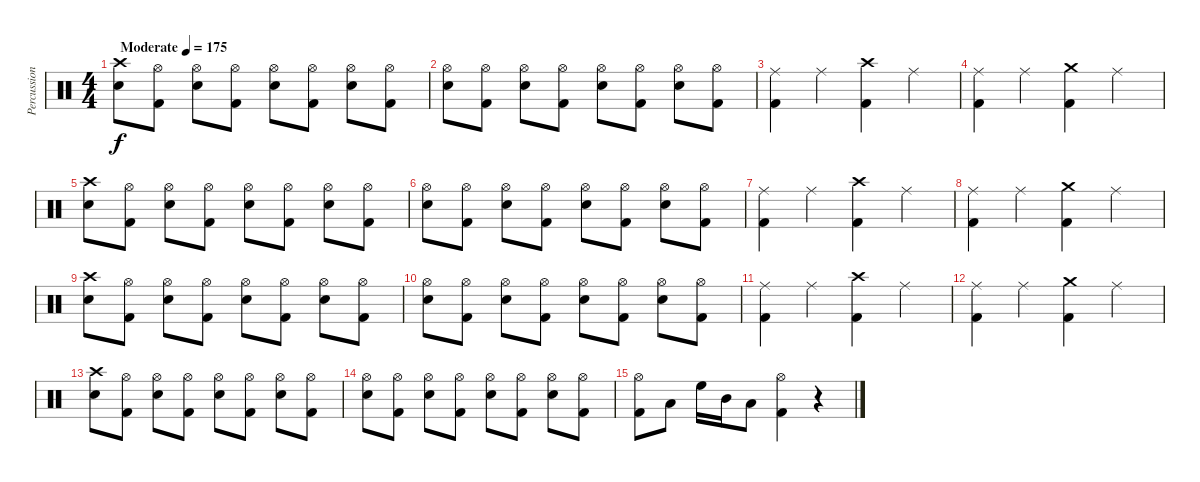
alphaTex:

\track ("Percussion" "Percussion") {instrument percussion}
\staff {score}
\articulation defaults
\ts (4 4)
\tempo (175 "Moderate")
\clef neutral
\ks c
("Crash high (hit)" "Snare (hit) 2").8{dy f} ("Hi-Hat (open)" "Kick (hit) 2").8 ("Hi-Hat (open)" "Snare (hit) 2").8 ("Hi-Hat (open)" "Kick (hit) 2").8 ("Hi-Hat (open)" "Snare (hit) 2").8 ("Hi-Hat (open)" "Kick (hit) 2").8 ("Hi-Hat (open)" "Snare (hit) 2").8 ("Hi-Hat (open)" "Kick (hit) 2").8 |
("Hi-Hat (open)" "Snare (hit) 2").8 ("Hi-Hat (open)" "Kick (hit) 2").8 ("Hi-Hat (open)" "Snare (hit) 2").8 ("Hi-Hat (open)" "Kick (hit) 2").8 ("Hi-Hat (open)" "Snare (hit) 2").8 ("Hi-Hat (open)" "Kick (hit) 2").8 ("Hi-Hat (open)" "Snare (hit) 2").8 ("Hi-Hat (open)" "Kick (hit) 2").8 |
("Ride (middle)" "Kick (hit) 2").4 "Ride (middle)".4 ("Crash high (hit)" "Kick (hit) 2").4 "Ride (middle)".4 |
("Ride (middle)" "Kick (hit) 2").4 "Ride (middle)".4 ("Crash medium (hit)" "Kick (hit) 2").4 "Ride (middle)".4 |
("Crash high (hit)" "Snare (hit) 2").8 ("Hi-Hat (open)" "Kick (hit) 2").8 ("Hi-Hat (open)" "Snare (hit) 2").8 ("Hi-Hat (open)" "Kick (hit) 2").8 ("Hi-Hat (open)" "Snare (hit) 2").8 ("Hi-Hat (open)" "Kick (hit) 2").8 ("Hi-Hat (open)" "Snare (hit) 2").8 ("Hi-Hat (open)" "Kick (hit) 2").8 |
("Hi-Hat (open)" "Snare (hit) 2").8 ("Hi-Hat (open)" "Kick (hit) 2").8 ("Hi-Hat (open)" "Snare (hit) 2").8 ("Hi-Hat (open)" "Kick (hit) 2").8 ("Hi-Hat (open)" "Snare (hit) 2").8 ("Hi-Hat (open)" "Kick (hit) 2").8 ("Hi-Hat (open)" "Snare (hit) 2").8 ("Hi-Hat (open)" "Kick (hit) 2").8 |
("Ride (middle)" "Kick (hit) 2").4 "Ride (middle)".4 ("Crash high (hit)" "Kick (hit) 2").4 "Ride (middle)".4 |
("Ride (middle)" "Kick (hit) 2").4 "Ride (middle)".4 ("Crash medium (hit)" "Kick (hit) 2").4 "Ride (middle)".4 |
("Crash high (hit)" "Snare (hit) 2").8 ("Hi-Hat (open)" "Kick (hit) 2").8 ("Hi-Hat (open)" "Snare (hit) 2").8 ("Hi-Hat (open)" "Kick (hit) 2").8 ("Hi-Hat (open)" "Snare (hit) 2").8 ("Hi-Hat (open)" "Kick (hit) 2").8 ("Hi-Hat (open)" "Snare (hit) 2").8 ("Hi-Hat (open)" "Kick (hit) 2").8 |
("Hi-Hat (open)" "Snare (hit) 2").8 ("Hi-Hat (open)" "Kick (hit) 2").8 ("Hi-Hat (open)" "Snare (hit) 2").8 ("Hi-Hat (open)" "Kick (hit) 2").8 ("Hi-Hat (open)" "Snare (hit) 2").8 ("Hi-Hat (open)" "Kick (hit) 2").8 ("Hi-Hat (open)" "Snare (hit) 2").8 ("Hi-Hat (open)" "Kick (hit) 2").8 |
("Ride (middle)" "Kick (hit) 2").4 "Ride (middle)".4 ("Crash high (hit)" "Kick (hit) 2").4 "Ride (middle)".4 |
("Ride (middle)" "Kick (hit) 2").4 "Ride (middle)".4 ("Crash medium (hit)" "Kick (hit) 2").4 "Ride (middle)".4 |
("Crash high (hit)" "Snare (hit) 2").8 ("Hi-Hat (open)" "Kick (hit) 2").8 ("Hi-Hat (open)" "Snare (hit) 2").8 ("Hi-Hat (open)" "Kick (hit) 2").8 ("Hi-Hat (open)" "Snare (hit) 2").8 ("Hi-Hat (open)" "Kick (hit) 2").8 ("Hi-Hat (open)" "Snare (hit) 2").8 ("Hi-Hat (open)" "Kick (hit) 2").8 |
("Hi-Hat (open)" "Snare (hit) 2").8 ("Hi-Hat (open)" "Kick (hit) 2").8 ("Hi-Hat (open)" "Snare (hit) 2").8 ("Hi-Hat (open)" "Kick (hit) 2").8 ("Hi-Hat (open)" "Snare (hit) 2").8 ("Hi-Hat (open)" "Kick (hit) 2").8 ("Hi-Hat (open)" "Snare (hit) 2").8 ("Hi-Hat (open)" "Kick (hit) 2").8 |
("Hi-Hat (open)" "Kick (hit) 2").8 "Low Floor Tom (hit)".8 "High Floor Tom (hit)".16 "Mid Tom (hit)".16 "Low Floor Tom (hit)".8 ("Hi-Hat (open)" "Kick (hit) 2").4 r.4
